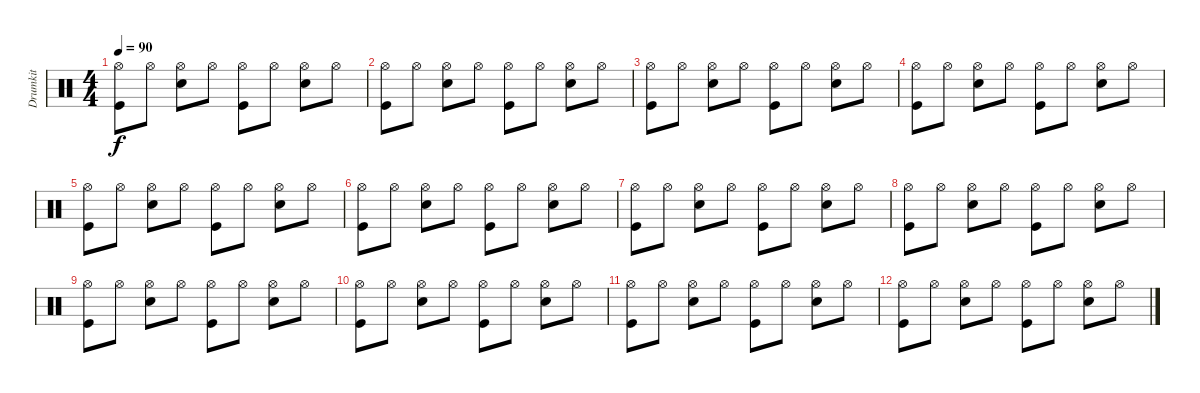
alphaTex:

\track ("Drumkit" "Drumkit") {instrument percussion}
\staff {score}
\articulation defaults
\ts (4 4)
\tempo 90
\clef neutral
\ks c
("Hi-Hat (open)" "Kick (hit)").8{dy f} "Hi-Hat (open)".8 ("Hi-Hat (open)" "Snare (hit) 2").8 "Hi-Hat (open)".8 ("Hi-Hat (open)" "Kick (hit)").8 "Hi-Hat (open)".8 ("Hi-Hat (open)" "Snare (hit) 2").8 "Hi-Hat (open)".8 |
("Hi-Hat (open)" "Kick (hit)").8 "Hi-Hat (open)".8 ("Hi-Hat (open)" "Snare (hit) 2").8 "Hi-Hat (open)".8 ("Hi-Hat (open)" "Kick (hit)").8 "Hi-Hat (open)".8 ("Hi-Hat (open)" "Snare (hit) 2").8 "Hi-Hat (open)".8 |
("Hi-Hat (open)" "Kick (hit)").8 "Hi-Hat (open)".8 ("Hi-Hat (open)" "Snare (hit) 2").8 "Hi-Hat (open)".8 ("Hi-Hat (open)" "Kick (hit)").8 "Hi-Hat (open)".8 ("Hi-Hat (open)" "Snare (hit) 2").8 "Hi-Hat (open)".8 |
("Hi-Hat (open)" "Kick (hit)").8 "Hi-Hat (open)".8 ("Hi-Hat (open)" "Snare (hit) 2").8 "Hi-Hat (open)".8 ("Hi-Hat (open)" "Kick (hit)").8 "Hi-Hat (open)".8 ("Hi-Hat (open)" "Snare (hit) 2").8 "Hi-Hat (open)".8 |
("Hi-Hat (open)" "Kick (hit)").8 "Hi-Hat (open)".8 ("Hi-Hat (open)" "Snare (hit) 2").8 "Hi-Hat (open)".8 ("Hi-Hat (open)" "Kick (hit)").8 "Hi-Hat (open)".8 ("Hi-Hat (open)" "Snare (hit) 2").8 "Hi-Hat (open)".8 |
("Hi-Hat (open)" "Kick (hit)").8 "Hi-Hat (open)".8 ("Hi-Hat (open)" "Snare (hit) 2").8 "Hi-Hat (open)".8 ("Hi-Hat (open)" "Kick (hit)").8 "Hi-Hat (open)".8 ("Hi-Hat (open)" "Snare (hit) 2").8 "Hi-Hat (open)".8 |
("Hi-Hat (open)" "Kick (hit)").8 "Hi-Hat (open)".8 ("Hi-Hat (open)" "Snare (hit) 2").8 "Hi-Hat (open)".8 ("Hi-Hat (open)" "Kick (hit)").8 "Hi-Hat (open)".8 ("Hi-Hat (open)" "Snare (hit) 2").8 "Hi-Hat (open)".8 |
("Hi-Hat (open)" "Kick (hit)").8 "Hi-Hat (open)".8 ("Hi-Hat (open)" "Snare (hit) 2").8 "Hi-Hat (open)".8 ("Hi-Hat (open)" "Kick (hit)").8 "Hi-Hat (open)".8 ("Hi-Hat (open)" "Snare (hit) 2").8 "Hi-Hat (open)".8 |
("Hi-Hat (open)" "Kick (hit)").8 "Hi-Hat (open)".8 ("Hi-Hat (open)" "Snare (hit) 2").8 "Hi-Hat (open)".8 ("Hi-Hat (open)" "Kick (hit)").8 "Hi-Hat (open)".8 ("Hi-Hat (open)" "Snare (hit) 2").8 "Hi-Hat (open)".8 |
("Hi-Hat (open)" "Kick (hit)").8 "Hi-Hat (open)".8 ("Hi-Hat (open)" "Snare (hit) 2").8 "Hi-Hat (open)".8 ("Hi-Hat (open)" "Kick (hit)").8 "Hi-Hat (open)".8 ("Hi-Hat (open)" "Snare (hit) 2").8 "Hi-Hat (open)".8 |
("Hi-Hat (open)" "Kick (hit)").8 "Hi-Hat (open)".8 ("Hi-Hat (open)" "Snare (hit) 2").8 "Hi-Hat (open)".8 ("Hi-Hat (open)" "Kick (hit)").8 "Hi-Hat (open)".8 ("Hi-Hat (open)" "Snare (hit) 2").8 "Hi-Hat (open)".8 |
("Hi-Hat (open)" "Kick (hit)").8 "Hi-Hat (open)".8 ("Hi-Hat (open)" "Snare (hit) 2").8 "Hi-Hat (open)".8 ("Hi-Hat (open)" "Kick (hit)").8 "Hi-Hat (open)".8 ("Hi-Hat (open)" "Snare (hit) 2").8 "Hi-Hat (open)".8
